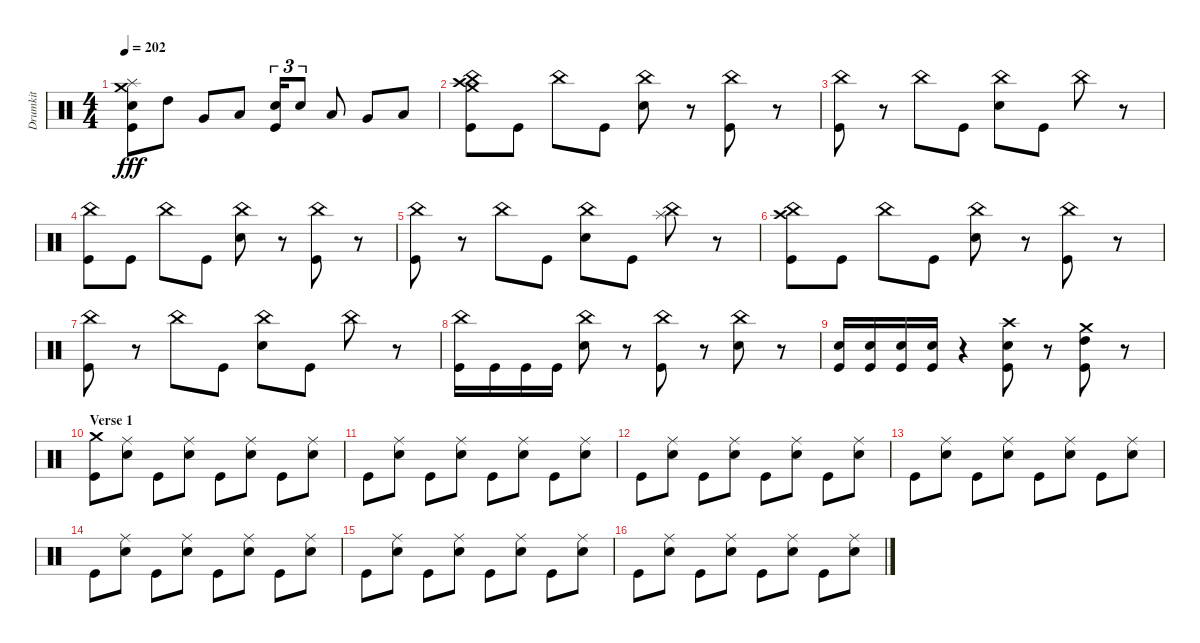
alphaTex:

\track ("Drumkit" "Drumkit") {instrument percussion}
\staff {score}
\articulation defaults
\ts (4 4)
\tempo 202
\clef neutral
\ks c
("Splash (hit)" "Snare (hit) 2" "Crash medium (hit)" "Kick (hit)").8{dy fff} "High Tom (hit)".8 "Very Low Tom (hit)".8 "Low Floor Tom (hit)".8 ("Snare (hit) 2" "Kick (hit)").16{tu (3 2)} "Snare (hit) 2".8{tu (3 2)} "Low Tom (hit)".8 "Very Low Tom (hit)".8 "Low Floor Tom (hit)".8 |
("China (hit)" "Crash medium (hit)" "Crash high (hit)" "Kick (hit)").8 "Kick (hit)".8 "China (hit)".8 "Kick (hit)".8 ("China (hit)" "Snare (hit) 2").8 r.8 ("China (hit)" "Kick (hit)").8 r.8 |
("China (hit)" "Kick (hit)").8 r.8 "China (hit)".8 "Kick (hit)".8 ("China (hit)" "Snare (hit) 2").8 "Kick (hit)".8 "China (hit)".8 r.8 |
("China (hit)" "Kick (hit)").8 "Kick (hit)".8 "China (hit)".8 "Kick (hit)".8 ("China (hit)" "Snare (hit) 2").8 r.8 ("China (hit)" "Kick (hit)").8 r.8 |
("China (hit)" "Kick (hit)").8 r.8 "China (hit)".8 "Kick (hit)".8 ("China (hit)" "Snare (hit) 2").8 "Kick (hit)".8 ("Splash (hit)" "China (hit)").8 r.8 |
("China (hit)" "Crash high (hit)" "Kick (hit)").8 "Kick (hit)".8 "China (hit)".8 "Kick (hit)".8 ("China (hit)" "Snare (hit) 2").8 r.8 ("China (hit)" "Kick (hit)").8 r.8 |
("China (hit)" "Kick (hit)").8 r.8 "China (hit)".8 "Kick (hit)".8 ("China (hit)" "Snare (hit) 2").8 "Kick (hit)".8 "China (hit)".8 r.8 |
("China (hit)" "Kick (hit)").16 "Kick (hit)".16 "Kick (hit)".16 "Kick (hit)".16 ("China (hit)" "Snare (hit) 2").8 r.8 ("China (hit)" "Kick (hit)").8 r.8 ("China (hit)" "Snare (hit) 2").8 r.8 |
("Snare (hit) 2" "Kick (hit)").16 ("Snare (hit) 2" "Kick (hit)").16 ("Snare (hit) 2" "Kick (hit)").16 ("Snare (hit) 2" "Kick (hit)").16 r.4 ("Crash high (hit)" "Snare (hit) 2" "Kick (hit)").8 r.8 ("High Tom (hit)" "Crash medium (hit)" "Kick (hit)").8 r.8 |
\section ("" "Verse 1")
("Crash medium (hit)" "Kick (hit)").8 ("Ride (middle)" "Snare (hit) 2").8 "Kick (hit)".8 ("Ride (middle)" "Snare (hit) 2").8 "Kick (hit)".8 ("Ride (middle)" "Snare (hit) 2").8 "Kick (hit)".8 ("Ride (middle)" "Snare (hit) 2").8 |
"Kick (hit)".8 ("Ride (middle)" "Snare (hit) 2").8 "Kick (hit)".8 ("Ride (middle)" "Snare (hit) 2").8 "Kick (hit)".8 ("Ride (middle)" "Snare (hit) 2").8 "Kick (hit)".8 ("Ride (middle)" "Snare (hit) 2").8 |
"Kick (hit)".8 ("Ride (middle)" "Snare (hit) 2").8 "Kick (hit)".8 ("Ride (middle)" "Snare (hit) 2").8 "Kick (hit)".8 ("Ride (middle)" "Snare (hit) 2").8 "Kick (hit)".8 ("Ride (middle)" "Snare (hit) 2").8 |
"Kick (hit)".8 ("Ride (middle)" "Snare (hit) 2").8 "Kick (hit)".8 ("Ride (middle)" "Snare (hit) 2").8 "Kick (hit)".8 ("Ride (middle)" "Snare (hit) 2").8 "Kick (hit)".8 ("Ride (middle)" "Snare (hit) 2").8 |
"Kick (hit)".8 ("Ride (middle)" "Snare (hit) 2").8 "Kick (hit)".8 ("Ride (middle)" "Snare (hit) 2").8 "Kick (hit)".8 ("Ride (middle)" "Snare (hit) 2").8 "Kick (hit)".8 ("Ride (middle)" "Snare (hit) 2").8 |
"Kick (hit)".8 ("Ride (middle)" "Snare (hit) 2").8 "Kick (hit)".8 ("Ride (middle)" "Snare (hit) 2").8 "Kick (hit)".8 ("Ride (middle)" "Snare (hit) 2").8 "Kick (hit)".8 ("Ride (middle)" "Snare (hit) 2").8 |
"Kick (hit)".8 ("Ride (middle)" "Snare (hit) 2").8 "Kick (hit)".8 ("Ride (middle)" "Snare (hit) 2").8 "Kick (hit)".8 ("Ride (middle)" "Snare (hit) 2").8 "Kick (hit)".8 ("Ride (middle)" "Snare (hit) 2").8
